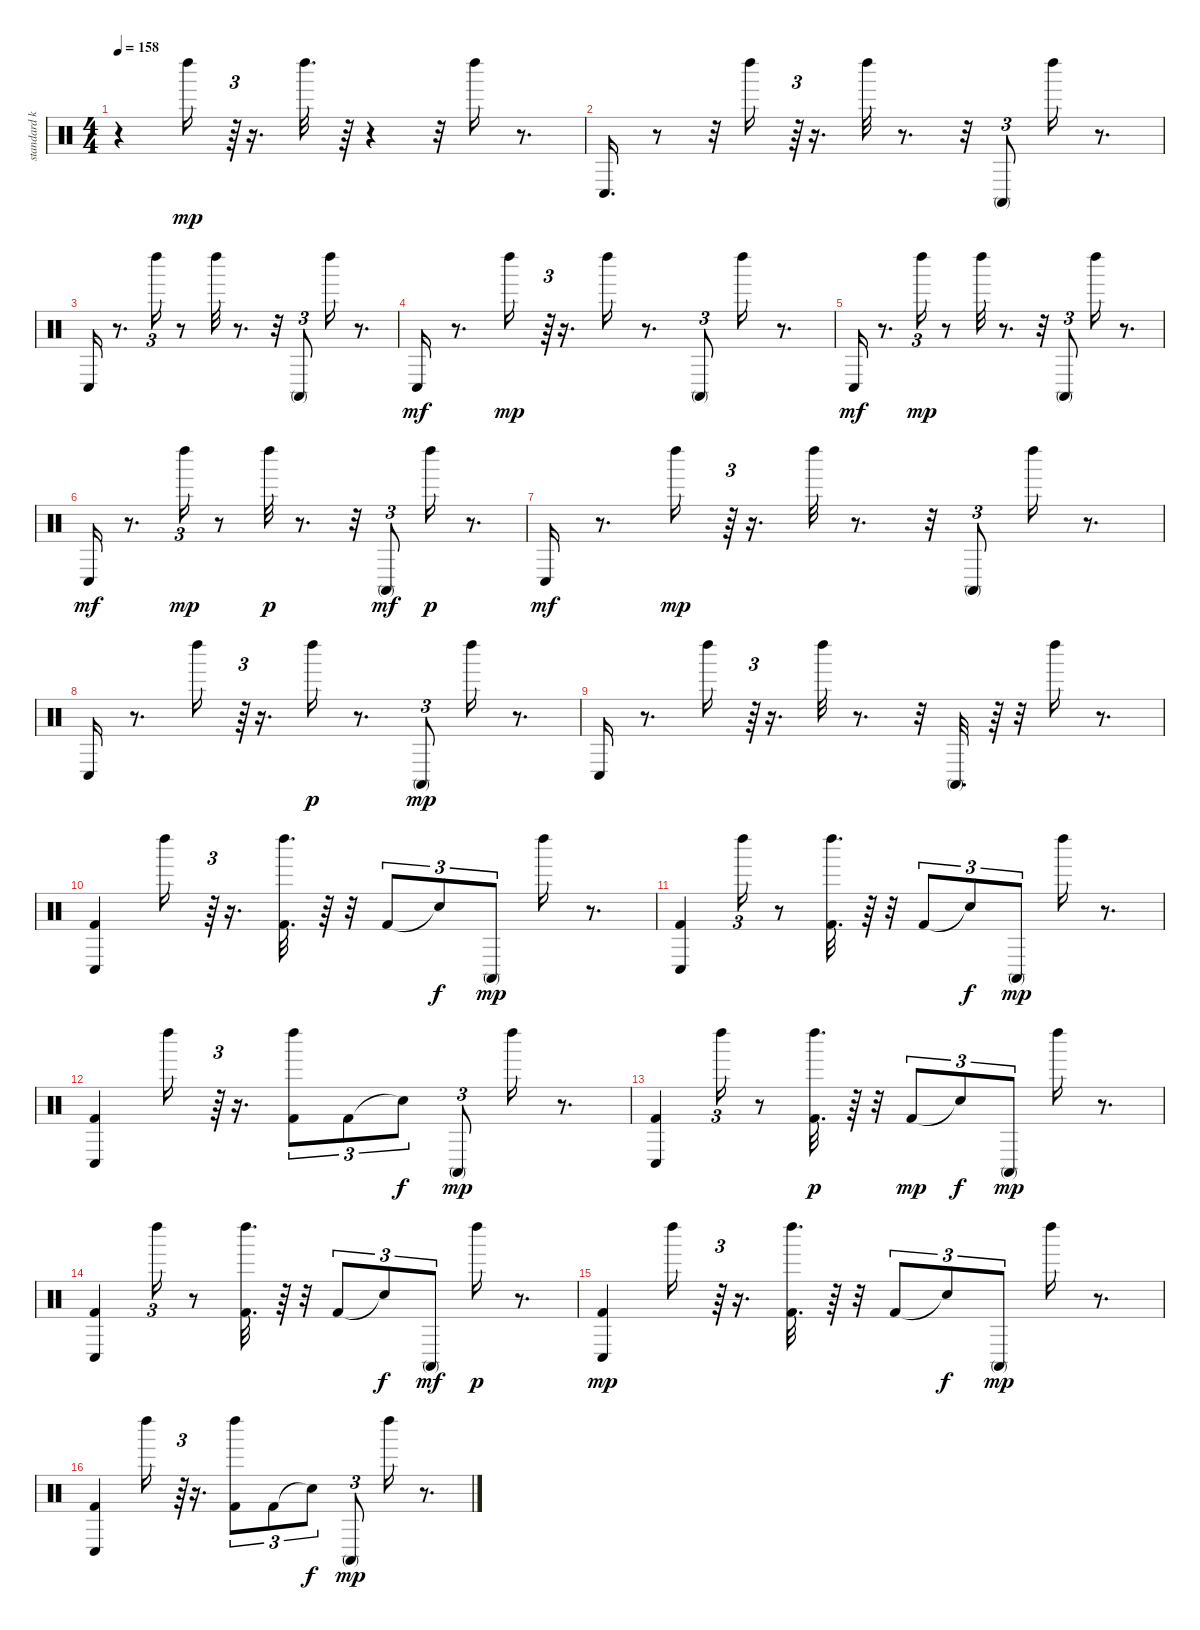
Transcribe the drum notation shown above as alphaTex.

\track ("standard kit" "standard k") {instrument percussion}
\staff {score}
\articulation defaults
\ts (4 4)
\tempo 158
\clef neutral
\ks c
r.4{dy mp} "Left Maraca (hit)".16 r.64{tu (3 2)} r.16{d} "Left Maraca (hit)".32{d} r.64 r.4 r.32 "Left Maraca (hit)".16 r.8{d} |
"Conga low (hit)".16{d} r.8 r.32 "Left Maraca (hit)".16 r.64{tu (3 2)} r.16{d} "Left Maraca (hit)".32 r.8{d} r.32 "Conga high (mute)".8{tu (3 2)} "Left Maraca (hit)".16 r.8{d} |
"Conga low (hit)".16 r.8{d} "Left Maraca (hit)".16{tu (3 2)} r.8 "Left Maraca (hit)".32 r.8{d} r.32 "Conga high (mute)".8{tu (3 2)} "Left Maraca (hit)".16 r.8{d} |
"Conga low (hit)".16{dy mf} r.8{d} "Left Maraca (hit)".16{dy mp} r.64{tu (3 2)} r.16{d} "Left Maraca (hit)".16 r.8{d} "Conga high (mute)".8{tu (3 2)} "Left Maraca (hit)".16 r.8{d} |
"Conga low (hit)".16{dy mf} r.8{d} "Left Maraca (hit)".16{tu (3 2) dy mp} r.8 "Left Maraca (hit)".32 r.8{d} r.32 "Conga high (mute)".8{tu (3 2)} "Left Maraca (hit)".16 r.8{d} |
"Conga low (hit)".16{dy mf} r.8{d} "Left Maraca (hit)".16{tu (3 2) dy mp} r.8 "Left Maraca (hit)".32{dy p} r.8{d} r.32 "Conga high (mute)".8{tu (3 2) dy mf} "Left Maraca (hit)".16{dy p} r.8{d} |
"Conga low (hit)".16{dy mf} r.8{d} "Left Maraca (hit)".16{dy mp} r.64{tu (3 2)} r.16{d} "Left Maraca (hit)".32 r.8{d} r.32 "Conga high (mute)".8{tu (3 2)} "Left Maraca (hit)".16 r.8{d} |
"Conga low (hit)".16 r.8{d} "Left Maraca (hit)".16 r.64{tu (3 2)} r.16{d} "Left Maraca (hit)".16{dy p} r.8{d} "Conga high (mute)".8{tu (3 2) dy mp} "Left Maraca (hit)".16 r.8{d} |
"Conga low (hit)".16 r.8{d} "Left Maraca (hit)".16 r.64{tu (3 2)} r.16{d} "Left Maraca (hit)".32 r.8{d} r.32 "Conga high (mute)".32{d} r.64 r.32 "Left Maraca (hit)".16 r.8{d} |
("Conga low (hit)" "Kick (hit) 2").4 "Left Maraca (hit)".16 r.64{tu (3 2)} r.16{d} ("Left Maraca (hit)" "Kick (hit) 2").32{d} r.64 r.32 "Kick (hit) 2".8{tu (3 2)} "Snare (hit)"{t}.8{tu (3 2) dy f} "Conga high (mute)".8{tu (3 2) dy mp} "Left Maraca (hit)".16 r.8{d} |
("Conga low (hit)" "Kick (hit) 2").4 "Left Maraca (hit)".16{tu (3 2)} r.8 ("Left Maraca (hit)" "Kick (hit) 2").32{d} r.64 r.32 "Kick (hit) 2".8{tu (3 2)} "Snare (hit)"{t}.8{tu (3 2) dy f} "Conga high (mute)".8{tu (3 2) dy mp} "Left Maraca (hit)".16 r.8{d} |
("Conga low (hit)" "Kick (hit) 2").4 "Left Maraca (hit)".16 r.64{tu (3 2)} r.16{d} ("Left Maraca (hit)" "Kick (hit) 2").8{tu (3 2)} "Kick (hit) 2".8{tu (3 2)} "Snare (hit)"{t}.8{tu (3 2) dy f} "Conga high (mute)".8{tu (3 2) dy mp} "Left Maraca (hit)".16 r.8{d} |
("Conga low (hit)" "Kick (hit) 2").4 "Left Maraca (hit)".16{tu (3 2)} r.8 ("Left Maraca (hit)" "Kick (hit) 2").32{d dy p} r.64 r.32 "Kick (hit) 2".8{tu (3 2) dy mp} "Snare (hit)"{t}.8{tu (3 2) dy f} "Conga high (mute)".8{tu (3 2) dy mp} "Left Maraca (hit)".16 r.8{d} |
("Conga low (hit)" "Kick (hit) 2").4 "Left Maraca (hit)".16{tu (3 2)} r.8 ("Left Maraca (hit)" "Kick (hit) 2").32{d} r.64 r.32 "Kick (hit) 2".8{tu (3 2)} "Snare (hit)"{t}.8{tu (3 2) dy f} "Conga high (mute)".8{tu (3 2) dy mf} "Left Maraca (hit)".16{dy p} r.8{d} |
("Conga low (hit)" "Kick (hit) 2").4{dy mp} "Left Maraca (hit)".16 r.64{tu (3 2)} r.16{d} ("Left Maraca (hit)" "Kick (hit) 2").32{d} r.64 r.32 "Kick (hit) 2".8{tu (3 2)} "Snare (hit)"{t}.8{tu (3 2) dy f} "Conga high (mute)".8{tu (3 2) dy mp} "Left Maraca (hit)".16 r.8{d} |
("Conga low (hit)" "Kick (hit) 2").4 "Left Maraca (hit)".16 r.64{tu (3 2)} r.16{d} ("Left Maraca (hit)" "Kick (hit) 2").8{tu (3 2)} "Kick (hit) 2".8{tu (3 2)} "Snare (hit)"{t}.8{tu (3 2) dy f} "Conga high (mute)".8{tu (3 2) dy mp} "Left Maraca (hit)".16 r.8{d}
